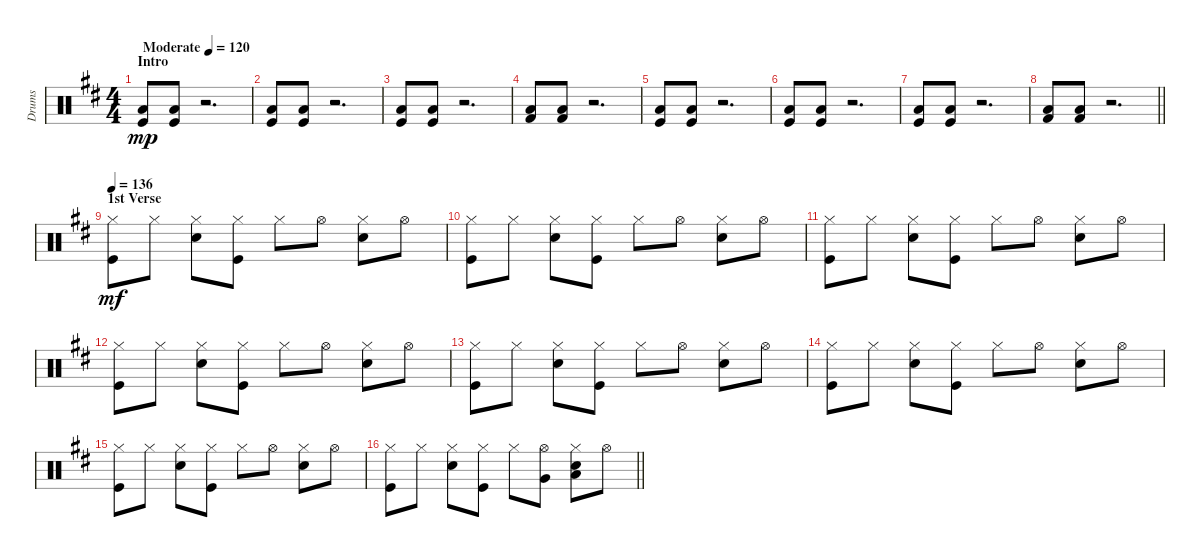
\track ("Drums" "Drums") {instrument percussion}
\staff {score}
\articulation defaults
\ts (4 4)
\section ("" "Intro")
\tempo (120 "Moderate")
\clef neutral
\ks bminor
("Low Floor Tom (hit)" "Kick (hit)").8{dy mp} ("Low Floor Tom (hit)" "Kick (hit)").8 r.2{d} |
("Low Floor Tom (hit)" "Kick (hit)").8 ("Low Floor Tom (hit)" "Kick (hit)").8 r.2{d} |
("Low Floor Tom (hit)" "Kick (hit)").8 ("Low Floor Tom (hit)" "Kick (hit)").8 r.2{d} |
("Low Floor Tom (hit)" "Kick (hit) 2").8 ("Low Floor Tom (hit)" "Kick (hit) 2").8 r.2{d} |
("Low Floor Tom (hit)" "Kick (hit)").8 ("Low Floor Tom (hit)" "Kick (hit)").8 r.2{d} |
("Low Floor Tom (hit)" "Kick (hit)").8 ("Low Floor Tom (hit)" "Kick (hit)").8 r.2{d} |
("Low Floor Tom (hit)" "Kick (hit)").8 ("Low Floor Tom (hit)" "Kick (hit)").8 r.2{d} |
\barLineRight lightlight
("Low Floor Tom (hit)" "Kick (hit) 2").8 ("Low Floor Tom (hit)" "Kick (hit) 2").8 r.2{d} |
\section ("" "1st Verse")
\tempo 136
("Kick (hit)" "Hi-Hat (closed)").8{dy mf} "Hi-Hat (closed)".8 ("Snare (hit) 2" "Hi-Hat (closed)").8 ("Kick (hit)" "Hi-Hat (closed)").8 "Hi-Hat (closed)".8 "Hi-Hat (open)".8 ("Snare (hit) 2" "Hi-Hat (closed)").8 "Hi-Hat (open)".8 |
("Kick (hit)" "Hi-Hat (closed)").8 "Hi-Hat (closed)".8 ("Snare (hit) 2" "Hi-Hat (closed)").8 ("Kick (hit)" "Hi-Hat (closed)").8 "Hi-Hat (closed)".8 "Hi-Hat (open)".8 ("Snare (hit) 2" "Hi-Hat (closed)").8 "Hi-Hat (open)".8 |
("Kick (hit)" "Hi-Hat (closed)").8 "Hi-Hat (closed)".8 ("Snare (hit) 2" "Hi-Hat (closed)").8 ("Kick (hit)" "Hi-Hat (closed)").8 "Hi-Hat (closed)".8 "Hi-Hat (open)".8 ("Snare (hit) 2" "Hi-Hat (closed)").8 "Hi-Hat (open)".8 |
("Kick (hit)" "Hi-Hat (closed)").8 "Hi-Hat (closed)".8 ("Snare (hit) 2" "Hi-Hat (closed)").8 ("Kick (hit)" "Hi-Hat (closed)").8 "Hi-Hat (closed)".8 "Hi-Hat (open)".8 ("Snare (hit) 2" "Hi-Hat (closed)").8 "Hi-Hat (open)".8 |
("Kick (hit)" "Hi-Hat (closed)").8 "Hi-Hat (closed)".8 ("Snare (hit) 2" "Hi-Hat (closed)").8 ("Kick (hit)" "Hi-Hat (closed)").8 "Hi-Hat (closed)".8 "Hi-Hat (open)".8 ("Snare (hit) 2" "Hi-Hat (closed)").8 "Hi-Hat (open)".8 |
("Kick (hit)" "Hi-Hat (closed)").8 "Hi-Hat (closed)".8 ("Snare (hit) 2" "Hi-Hat (closed)").8 ("Kick (hit)" "Hi-Hat (closed)").8 "Hi-Hat (closed)".8 "Hi-Hat (open)".8 ("Snare (hit) 2" "Hi-Hat (closed)").8 "Hi-Hat (open)".8 |
("Kick (hit)" "Hi-Hat (closed)").8 "Hi-Hat (closed)".8 ("Snare (hit) 2" "Hi-Hat (closed)").8 ("Kick (hit)" "Hi-Hat (closed)").8 "Hi-Hat (closed)".8 "Hi-Hat (open)".8 ("Snare (hit) 2" "Hi-Hat (closed)").8 "Hi-Hat (open)".8 |
\barLineRight lightlight
("Kick (hit)" "Hi-Hat (closed)").8 "Hi-Hat (closed)".8 ("Snare (hit) 2" "Hi-Hat (closed)").8 ("Kick (hit)" "Hi-Hat (closed)").8 "Hi-Hat (closed)".8 ("Very Low Tom (hit)" "Hi-Hat (open)").8 ("Low Floor Tom (hit)" "Snare (hit) 2" "Hi-Hat (closed)").8 "Hi-Hat (open)".8
